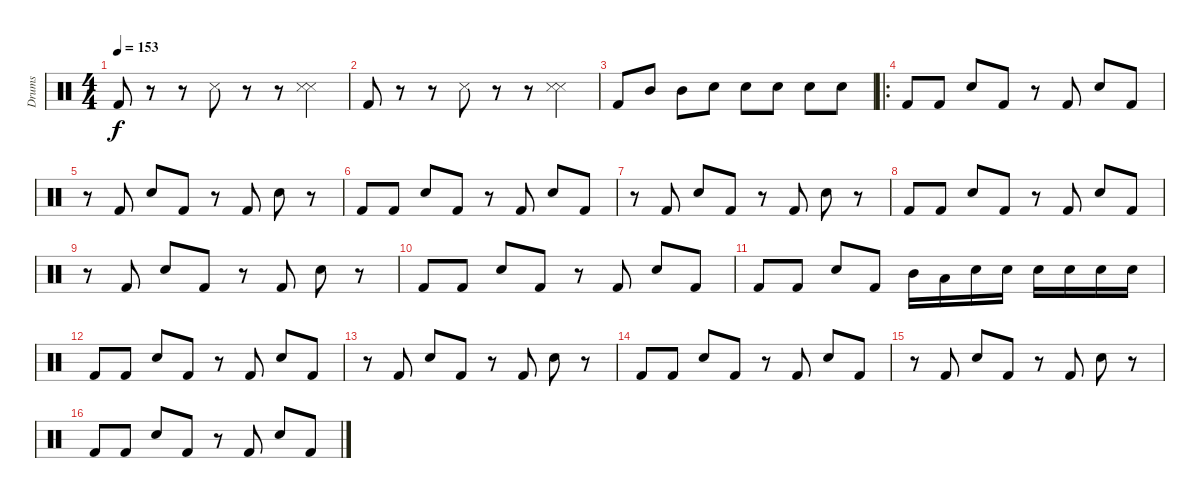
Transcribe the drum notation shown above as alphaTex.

\track ("Drums" "Drums") {instrument percussion}
\staff {score}
\articulation defaults
\ts (4 4)
\tempo 153
\clef neutral
\ks c "Kick (hit) 2".8{dy f}
r.8 r.8 "Snare (side stick) 3".8 r.8 r.8 ("Snare (side stick) 3" "Snare (side stick) 3").4 |
"Kick (hit) 2".8 r.8 r.8 "Snare (side stick) 3".8 r.8 r.8 ("Snare (side stick) 3" "Snare (side stick) 3").4 |
"Kick (hit) 2".8 "Mid Tom (hit)".8 "Mid Tom (hit)".8 "Snare (hit) 2".8 "Snare (hit) 2".8 "Snare (hit) 2".8 "Snare (hit) 2".8 "Snare (hit) 2".8 |
\ro "Kick (hit) 2".8 "Kick (hit) 2".8 "Snare (hit) 2".8 "Kick (hit) 2".8
r.8 "Kick (hit) 2".8 "Snare (hit) 2".8 "Kick (hit) 2".8 |
r.8 "Kick (hit) 2".8 "Snare (hit) 2".8 "Kick (hit) 2".8 r.8 "Kick (hit) 2".8 "Snare (hit) 2".8 r.8 |
"Kick (hit) 2".8 "Kick (hit) 2".8 "Snare (hit) 2".8 "Kick (hit) 2".8 r.8 "Kick (hit) 2".8 "Snare (hit) 2".8 "Kick (hit) 2".8 |
r.8 "Kick (hit) 2".8 "Snare (hit) 2".8 "Kick (hit) 2".8 r.8 "Kick (hit) 2".8 "Snare (hit) 2".8 r.8 |
"Kick (hit) 2".8 "Kick (hit) 2".8 "Snare (hit) 2".8 "Kick (hit) 2".8 r.8 "Kick (hit) 2".8 "Snare (hit) 2".8 "Kick (hit) 2".8 |
r.8 "Kick (hit) 2".8 "Snare (hit) 2".8 "Kick (hit) 2".8 r.8 "Kick (hit) 2".8 "Snare (hit) 2".8 r.8 |
"Kick (hit) 2".8 "Kick (hit) 2".8 "Snare (hit) 2".8 "Kick (hit) 2".8 r.8 "Kick (hit) 2".8 "Snare (hit) 2".8 "Kick (hit) 2".8 |
"Kick (hit) 2".8 "Kick (hit) 2".8 "Snare (hit) 2".8 "Kick (hit) 2".8 "Mid Tom (hit)".16 "Low Tom (hit)".16 "Snare (hit) 2".16 "Snare (hit) 2".16 "Snare (hit) 2".16 "Snare (hit) 2".16 "Snare (hit) 2".16 "Snare (hit) 2".16 |
"Kick (hit) 2".8 "Kick (hit) 2".8 "Snare (hit) 2".8 "Kick (hit) 2".8 r.8 "Kick (hit) 2".8 "Snare (hit) 2".8 "Kick (hit) 2".8 |
r.8 "Kick (hit) 2".8 "Snare (hit) 2".8 "Kick (hit) 2".8 r.8 "Kick (hit) 2".8 "Snare (hit) 2".8 r.8 |
"Kick (hit) 2".8 "Kick (hit) 2".8 "Snare (hit) 2".8 "Kick (hit) 2".8 r.8 "Kick (hit) 2".8 "Snare (hit) 2".8 "Kick (hit) 2".8 |
r.8 "Kick (hit) 2".8 "Snare (hit) 2".8 "Kick (hit) 2".8 r.8 "Kick (hit) 2".8 "Snare (hit) 2".8 r.8 |
"Kick (hit) 2".8 "Kick (hit) 2".8 "Snare (hit) 2".8 "Kick (hit) 2".8 r.8 "Kick (hit) 2".8 "Snare (hit) 2".8 "Kick (hit) 2".8
